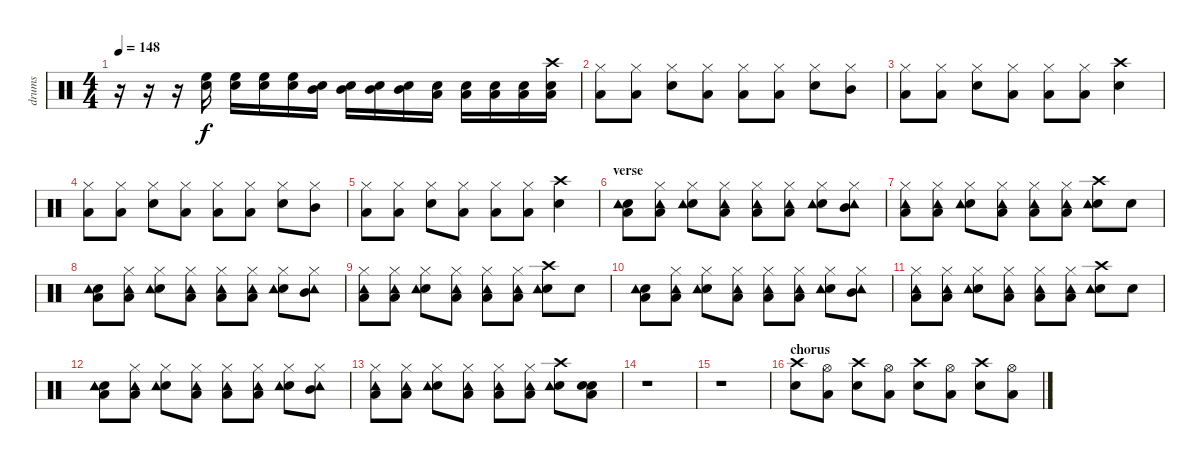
\track ("drums" "drums") {instrument percussion}
\staff {score}
\articulation defaults
\ts (4 4)
\tempo 148
\clef neutral
\ks c
r.16{dy f} r.16 r.16 ("Snare (hit) 2" "High Floor Tom (hit)").16 ("Snare (hit) 2" "High Floor Tom (hit)").16 ("Snare (hit) 2" "High Floor Tom (hit)").16 ("Snare (hit) 2" "High Floor Tom (hit)").16 ("Snare (hit) 2" "Mid Tom (hit)").16 ("Snare (hit) 2" "Mid Tom (hit)").16 ("Snare (hit) 2" "Mid Tom (hit)").16 ("Snare (hit) 2" "Mid Tom (hit)").16 ("Snare (hit) 2" "Low Tom (hit)").16 ("Snare (hit) 2" "Low Tom (hit)").16 ("Snare (hit) 2" "Low Tom (hit)").16 ("Snare (hit) 2" "Low Tom (hit)").16 ("Crash high (hit)" "Snare (hit) 2" "Low Floor Tom (hit)").16 |
("Hi-Hat (closed)" "Low Tom (hit)").8 ("Hi-Hat (closed)" "Low Tom (hit)").8 ("Snare (hit) 2" "Hi-Hat (closed)").8 ("Hi-Hat (closed)" "Low Tom (hit)").8 ("Hi-Hat (closed)" "Low Tom (hit)").8 ("Hi-Hat (closed)" "Low Tom (hit)").8 ("Snare (hit) 2" "Hi-Hat (closed)").8 ("Mid Tom (hit)" "Hi-Hat (closed)").8 |
("Hi-Hat (closed)" "Low Tom (hit)").8 ("Hi-Hat (closed)" "Low Tom (hit)").8 ("Snare (hit) 2" "Hi-Hat (closed)").8 ("Hi-Hat (closed)" "Low Tom (hit)").8 ("Hi-Hat (closed)" "Low Tom (hit)").8 ("Hi-Hat (closed)" "Low Tom (hit)").8 ("Crash high (hit)" "Snare (hit) 2").4 |
("Hi-Hat (closed)" "Low Tom (hit)").8 ("Hi-Hat (closed)" "Low Tom (hit)").8 ("Snare (hit) 2" "Hi-Hat (closed)").8 ("Hi-Hat (closed)" "Low Tom (hit)").8 ("Hi-Hat (closed)" "Low Tom (hit)").8 ("Hi-Hat (closed)" "Low Tom (hit)").8 ("Snare (hit) 2" "Hi-Hat (closed)").8 ("Mid Tom (hit)" "Hi-Hat (closed)").8 |
("Hi-Hat (closed)" "Low Tom (hit)").8 ("Hi-Hat (closed)" "Low Tom (hit)").8 ("Snare (hit) 2" "Hi-Hat (closed)").8 ("Hi-Hat (closed)" "Low Tom (hit)").8 ("Hi-Hat (closed)" "Low Tom (hit)").8 ("Hi-Hat (closed)" "Low Tom (hit)").8 ("Crash high (hit)" "Snare (hit) 2").4 |
\section ("" "verse")
("Snare (hit) 2" "Low Tom (hit)" "Tambourine (hit)").8 ("Hi-Hat (closed)" "Low Tom (hit)" "Tambourine (hit)").8 ("Snare (hit) 2" "Hi-Hat (closed)" "Tambourine (hit)").8 ("Hi-Hat (closed)" "Low Tom (hit)" "Tambourine (hit)").8 ("Hi-Hat (closed)" "Low Tom (hit)" "Tambourine (hit)").8 ("Hi-Hat (closed)" "Low Tom (hit)" "Tambourine (hit)").8 ("Snare (hit) 2" "Hi-Hat (closed)" "Tambourine (hit)").8 ("Mid Tom (hit)" "Hi-Hat (closed)" "Tambourine (hit)").8 |
("Hi-Hat (closed)" "Low Tom (hit)" "Tambourine (hit)").8 ("Hi-Hat (closed)" "Low Tom (hit)" "Tambourine (hit)").8 ("Snare (hit) 2" "Hi-Hat (closed)" "Tambourine (hit)").8 ("Hi-Hat (closed)" "Low Tom (hit)" "Tambourine (hit)").8 ("Hi-Hat (closed)" "Low Tom (hit)" "Tambourine (hit)").8 ("Hi-Hat (closed)" "Low Tom (hit)" "Tambourine (hit)").8 ("Crash high (hit)" "Snare (hit) 2" "Tambourine (hit)").8 "Snare (hit) 2".8 |
("Snare (hit) 2" "Low Tom (hit)" "Tambourine (hit)").8 ("Hi-Hat (closed)" "Low Tom (hit)" "Tambourine (hit)").8 ("Snare (hit) 2" "Hi-Hat (closed)" "Tambourine (hit)").8 ("Hi-Hat (closed)" "Low Tom (hit)" "Tambourine (hit)").8 ("Hi-Hat (closed)" "Low Tom (hit)" "Tambourine (hit)").8 ("Hi-Hat (closed)" "Low Tom (hit)" "Tambourine (hit)").8 ("Snare (hit) 2" "Hi-Hat (closed)" "Tambourine (hit)").8 ("Mid Tom (hit)" "Hi-Hat (closed)" "Tambourine (hit)").8 |
("Hi-Hat (closed)" "Low Tom (hit)" "Tambourine (hit)").8 ("Hi-Hat (closed)" "Low Tom (hit)" "Tambourine (hit)").8 ("Snare (hit) 2" "Hi-Hat (closed)" "Tambourine (hit)").8 ("Hi-Hat (closed)" "Low Tom (hit)" "Tambourine (hit)").8 ("Hi-Hat (closed)" "Low Tom (hit)" "Tambourine (hit)").8 ("Hi-Hat (closed)" "Low Tom (hit)" "Tambourine (hit)").8 ("Crash high (hit)" "Snare (hit) 2" "Tambourine (hit)").8 "Snare (hit) 2".8 |
("Snare (hit) 2" "Low Tom (hit)" "Tambourine (hit)").8 ("Hi-Hat (closed)" "Low Tom (hit)" "Tambourine (hit)").8 ("Snare (hit) 2" "Hi-Hat (closed)" "Tambourine (hit)").8 ("Hi-Hat (closed)" "Low Tom (hit)" "Tambourine (hit)").8 ("Hi-Hat (closed)" "Low Tom (hit)" "Tambourine (hit)").8 ("Hi-Hat (closed)" "Low Tom (hit)" "Tambourine (hit)").8 ("Snare (hit) 2" "Hi-Hat (closed)" "Tambourine (hit)").8 ("Mid Tom (hit)" "Hi-Hat (closed)" "Tambourine (hit)").8 |
("Hi-Hat (closed)" "Low Tom (hit)" "Tambourine (hit)").8 ("Hi-Hat (closed)" "Low Tom (hit)" "Tambourine (hit)").8 ("Snare (hit) 2" "Hi-Hat (closed)" "Tambourine (hit)").8 ("Hi-Hat (closed)" "Low Tom (hit)" "Tambourine (hit)").8 ("Hi-Hat (closed)" "Low Tom (hit)" "Tambourine (hit)").8 ("Hi-Hat (closed)" "Low Tom (hit)" "Tambourine (hit)").8 ("Crash high (hit)" "Snare (hit) 2" "Tambourine (hit)").8 "Snare (hit) 2".8 |
("Snare (hit) 2" "Low Tom (hit)" "Tambourine (hit)").8 ("Hi-Hat (closed)" "Low Tom (hit)" "Tambourine (hit)").8 ("Snare (hit) 2" "Hi-Hat (closed)" "Tambourine (hit)").8 ("Hi-Hat (closed)" "Low Tom (hit)" "Tambourine (hit)").8 ("Hi-Hat (closed)" "Low Tom (hit)" "Tambourine (hit)").8 ("Hi-Hat (closed)" "Low Tom (hit)" "Tambourine (hit)").8 ("Snare (hit) 2" "Hi-Hat (closed)" "Tambourine (hit)").8 ("Mid Tom (hit)" "Hi-Hat (closed)" "Tambourine (hit)").8 |
("Hi-Hat (closed)" "Low Tom (hit)" "Tambourine (hit)").8 ("Hi-Hat (closed)" "Low Tom (hit)" "Tambourine (hit)").8 ("Snare (hit) 2" "Hi-Hat (closed)" "Tambourine (hit)").8 ("Hi-Hat (closed)" "Low Tom (hit)" "Tambourine (hit)").8 ("Hi-Hat (closed)" "Low Tom (hit)" "Tambourine (hit)").8 ("Hi-Hat (closed)" "Low Tom (hit)" "Tambourine (hit)").8 ("Crash high (hit)" "Snare (hit) 2" "Tambourine (hit)").8 ("Snare (hit) 2" "Snare (hit) 2" "Low Floor Tom (hit)").8 |
r.1 |
r.1 |
\section ("" "chorus")
("Crash high (hit)" "Snare (hit) 2").8 ("Hi-Hat (open)" "Low Tom (hit)").8 ("Crash high (hit)" "Snare (hit) 2").8 ("Hi-Hat (open)" "Low Tom (hit)").8 ("Crash high (hit)" "Snare (hit) 2").8 ("Hi-Hat (open)" "Low Tom (hit)").8 ("Crash high (hit)" "Snare (hit) 2").8 ("Hi-Hat (open)" "Low Tom (hit)").8
